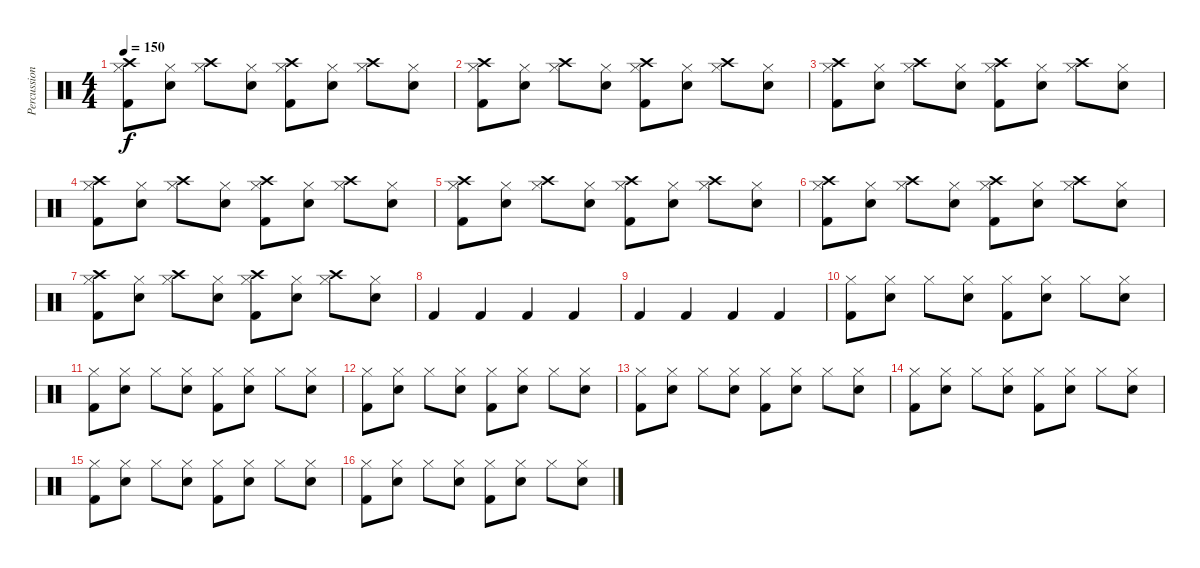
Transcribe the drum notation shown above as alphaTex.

\track ("Percussion" "Percussion") {instrument percussion}
\staff {score}
\articulation defaults
\ts (4 4)
\tempo 150
\clef neutral
\ks c
("Hi-Hat (closed)" "Kick (hit) 2" "Crash high (hit)").8{dy f} ("Hi-Hat (closed)" "Electric Snare (hit)").8 ("Hi-Hat (closed)" "Crash high (hit)").8 ("Hi-Hat (closed)" "Electric Snare (hit)").8 ("Hi-Hat (closed)" "Kick (hit) 2" "Crash high (hit)").8 ("Hi-Hat (closed)" "Electric Snare (hit)").8 ("Hi-Hat (closed)" "Crash high (hit)").8 ("Hi-Hat (closed)" "Electric Snare (hit)").8 |
("Hi-Hat (closed)" "Kick (hit) 2" "Crash high (hit)").8 ("Hi-Hat (closed)" "Electric Snare (hit)").8 ("Hi-Hat (closed)" "Crash high (hit)").8 ("Hi-Hat (closed)" "Electric Snare (hit)").8 ("Hi-Hat (closed)" "Kick (hit) 2" "Crash high (hit)").8 ("Hi-Hat (closed)" "Electric Snare (hit)").8 ("Hi-Hat (closed)" "Crash high (hit)").8 ("Hi-Hat (closed)" "Electric Snare (hit)").8 |
("Hi-Hat (closed)" "Kick (hit) 2" "Crash high (hit)").8 ("Hi-Hat (closed)" "Electric Snare (hit)").8 ("Hi-Hat (closed)" "Crash high (hit)").8 ("Hi-Hat (closed)" "Electric Snare (hit)").8 ("Hi-Hat (closed)" "Kick (hit) 2" "Crash high (hit)").8 ("Hi-Hat (closed)" "Electric Snare (hit)").8 ("Hi-Hat (closed)" "Crash high (hit)").8 ("Hi-Hat (closed)" "Electric Snare (hit)").8 |
("Hi-Hat (closed)" "Kick (hit) 2" "Crash high (hit)").8 ("Hi-Hat (closed)" "Electric Snare (hit)").8 ("Hi-Hat (closed)" "Crash high (hit)").8 ("Hi-Hat (closed)" "Electric Snare (hit)").8 ("Hi-Hat (closed)" "Kick (hit) 2" "Crash high (hit)").8 ("Hi-Hat (closed)" "Electric Snare (hit)").8 ("Hi-Hat (closed)" "Crash high (hit)").8 ("Hi-Hat (closed)" "Electric Snare (hit)").8 |
("Hi-Hat (closed)" "Kick (hit) 2" "Crash high (hit)").8 ("Hi-Hat (closed)" "Electric Snare (hit)").8 ("Hi-Hat (closed)" "Crash high (hit)").8 ("Hi-Hat (closed)" "Electric Snare (hit)").8 ("Hi-Hat (closed)" "Kick (hit) 2" "Crash high (hit)").8 ("Hi-Hat (closed)" "Electric Snare (hit)").8 ("Hi-Hat (closed)" "Crash high (hit)").8 ("Hi-Hat (closed)" "Electric Snare (hit)").8 |
("Hi-Hat (closed)" "Kick (hit) 2" "Crash high (hit)").8 ("Hi-Hat (closed)" "Electric Snare (hit)").8 ("Hi-Hat (closed)" "Crash high (hit)").8 ("Hi-Hat (closed)" "Electric Snare (hit)").8 ("Hi-Hat (closed)" "Kick (hit) 2" "Crash high (hit)").8 ("Hi-Hat (closed)" "Electric Snare (hit)").8 ("Hi-Hat (closed)" "Crash high (hit)").8 ("Hi-Hat (closed)" "Electric Snare (hit)").8 |
("Hi-Hat (closed)" "Kick (hit) 2" "Crash high (hit)").8 ("Hi-Hat (closed)" "Electric Snare (hit)").8 ("Hi-Hat (closed)" "Crash high (hit)").8 ("Hi-Hat (closed)" "Electric Snare (hit)").8 ("Hi-Hat (closed)" "Kick (hit) 2" "Crash high (hit)").8 ("Hi-Hat (closed)" "Electric Snare (hit)").8 ("Hi-Hat (closed)" "Crash high (hit)").8 ("Hi-Hat (closed)" "Electric Snare (hit)").8 |
"Kick (hit) 2".4 "Kick (hit) 2".4 "Kick (hit) 2".4 "Kick (hit) 2".4 |
"Kick (hit) 2".4 "Kick (hit) 2".4 "Kick (hit) 2".4 "Kick (hit) 2".4 |
("Hi-Hat (closed)" "Kick (hit) 2").8 ("Hi-Hat (closed)" "Electric Snare (hit)").8 "Hi-Hat (closed)".8 ("Hi-Hat (closed)" "Electric Snare (hit)").8 ("Hi-Hat (closed)" "Kick (hit) 2").8 ("Hi-Hat (closed)" "Electric Snare (hit)").8 "Hi-Hat (closed)".8 ("Hi-Hat (closed)" "Electric Snare (hit)").8 |
("Hi-Hat (closed)" "Kick (hit) 2").8 ("Hi-Hat (closed)" "Electric Snare (hit)").8 "Hi-Hat (closed)".8 ("Hi-Hat (closed)" "Electric Snare (hit)").8 ("Hi-Hat (closed)" "Kick (hit) 2").8 ("Hi-Hat (closed)" "Electric Snare (hit)").8 "Hi-Hat (closed)".8 ("Hi-Hat (closed)" "Electric Snare (hit)").8 |
("Hi-Hat (closed)" "Kick (hit) 2").8 ("Hi-Hat (closed)" "Electric Snare (hit)").8 "Hi-Hat (closed)".8 ("Hi-Hat (closed)" "Electric Snare (hit)").8 ("Hi-Hat (closed)" "Kick (hit) 2").8 ("Hi-Hat (closed)" "Electric Snare (hit)").8 "Hi-Hat (closed)".8 ("Hi-Hat (closed)" "Electric Snare (hit)").8 |
("Hi-Hat (closed)" "Kick (hit) 2").8 ("Hi-Hat (closed)" "Electric Snare (hit)").8 "Hi-Hat (closed)".8 ("Hi-Hat (closed)" "Electric Snare (hit)").8 ("Hi-Hat (closed)" "Kick (hit) 2").8 ("Hi-Hat (closed)" "Electric Snare (hit)").8 "Hi-Hat (closed)".8 ("Hi-Hat (closed)" "Electric Snare (hit)").8 |
("Hi-Hat (closed)" "Kick (hit) 2").8 ("Hi-Hat (closed)" "Electric Snare (hit)").8 "Hi-Hat (closed)".8 ("Hi-Hat (closed)" "Electric Snare (hit)").8 ("Hi-Hat (closed)" "Kick (hit) 2").8 ("Hi-Hat (closed)" "Electric Snare (hit)").8 "Hi-Hat (closed)".8 ("Hi-Hat (closed)" "Electric Snare (hit)").8 |
("Hi-Hat (closed)" "Kick (hit) 2").8 ("Hi-Hat (closed)" "Electric Snare (hit)").8 "Hi-Hat (closed)".8 ("Hi-Hat (closed)" "Electric Snare (hit)").8 ("Hi-Hat (closed)" "Kick (hit) 2").8 ("Hi-Hat (closed)" "Electric Snare (hit)").8 "Hi-Hat (closed)".8 ("Hi-Hat (closed)" "Electric Snare (hit)").8 |
("Hi-Hat (closed)" "Kick (hit) 2").8 ("Hi-Hat (closed)" "Electric Snare (hit)").8 "Hi-Hat (closed)".8 ("Hi-Hat (closed)" "Electric Snare (hit)").8 ("Hi-Hat (closed)" "Kick (hit) 2").8 ("Hi-Hat (closed)" "Electric Snare (hit)").8 "Hi-Hat (closed)".8 ("Hi-Hat (closed)" "Electric Snare (hit)").8
